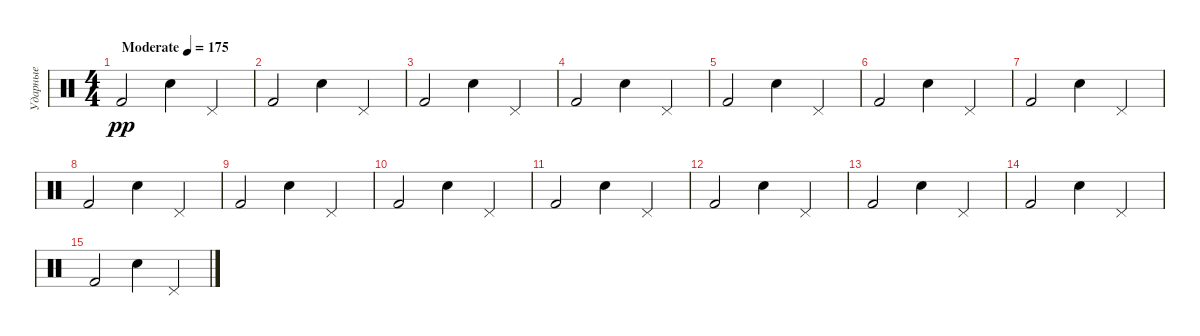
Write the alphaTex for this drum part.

\track ("Ударные" "Ударные") {instrument percussion}
\staff {score}
\articulation defaults
\ts (4 4)
\tempo (175 "Moderate")
\clef neutral
\ks c "Kick (hit) 2".2{dy pp} "Electric Snare (hit)".4 "Pedal Hi-Hat (hit)".4
|
"Kick (hit) 2".2 "Electric Snare (hit)".4 "Pedal Hi-Hat (hit)".4 |
"Kick (hit) 2".2 "Electric Snare (hit)".4 "Pedal Hi-Hat (hit)".4 |
"Kick (hit) 2".2 "Electric Snare (hit)".4 "Pedal Hi-Hat (hit)".4 |
"Kick (hit) 2".2 "Electric Snare (hit)".4 "Pedal Hi-Hat (hit)".4 |
"Kick (hit) 2".2 "Electric Snare (hit)".4 "Pedal Hi-Hat (hit)".4 |
"Kick (hit) 2".2 "Electric Snare (hit)".4 "Pedal Hi-Hat (hit)".4 |
"Kick (hit) 2".2 "Electric Snare (hit)".4 "Pedal Hi-Hat (hit)".4 |
"Kick (hit) 2".2 "Electric Snare (hit)".4 "Pedal Hi-Hat (hit)".4 |
"Kick (hit) 2".2 "Electric Snare (hit)".4 "Pedal Hi-Hat (hit)".4 |
"Kick (hit) 2".2 "Electric Snare (hit)".4 "Pedal Hi-Hat (hit)".4 |
"Kick (hit) 2".2 "Electric Snare (hit)".4 "Pedal Hi-Hat (hit)".4 |
"Kick (hit) 2".2 "Electric Snare (hit)".4 "Pedal Hi-Hat (hit)".4 |
"Kick (hit) 2".2 "Electric Snare (hit)".4 "Pedal Hi-Hat (hit)".4 |
"Kick (hit) 2".2 "Electric Snare (hit)".4 "Pedal Hi-Hat (hit)".4
